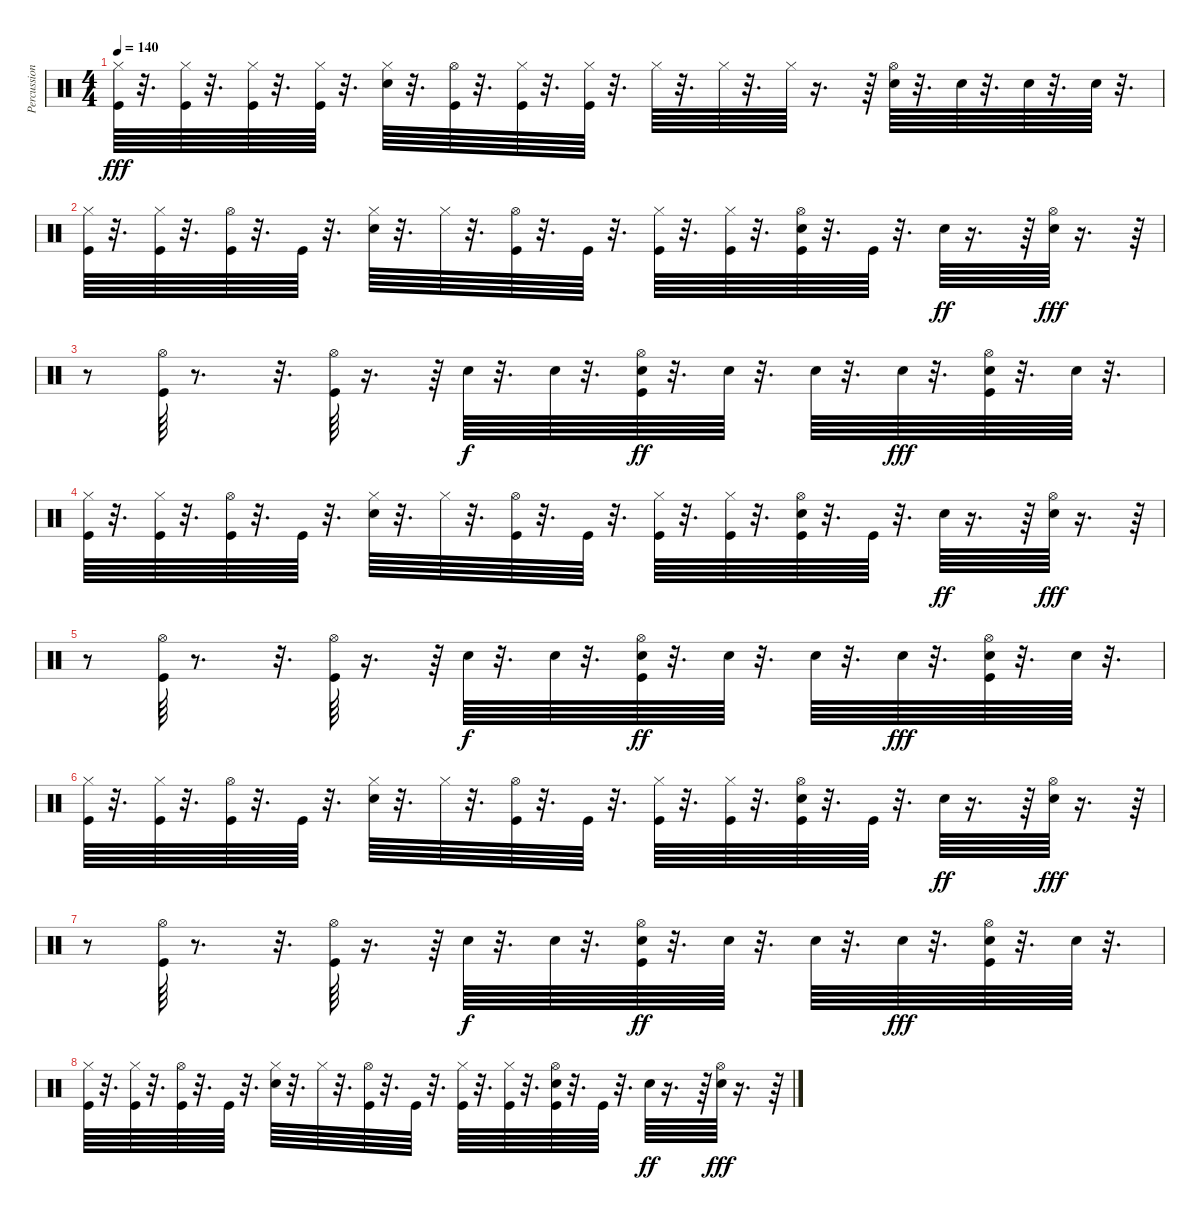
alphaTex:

\track ("Percussion [Room Kit]" "Percussion") {instrument percussion}
\staff {score}
\articulation defaults
\ts (4 4)
\tempo 140
\clef neutral
\ks c
("Kick (hit)" "Hi-Hat (closed)").64{dy fff} r.32{d} ("Kick (hit)" "Hi-Hat (closed)").64 r.32{d} ("Kick (hit)" "Hi-Hat (closed)").64 r.32{d} ("Kick (hit)" "Hi-Hat (closed)").64 r.32{d} ("Electric Snare (hit)" "Hi-Hat (closed)").64 r.32{d} ("Kick (hit)" "Hi-Hat (open)").64 r.32{d} ("Kick (hit)" "Hi-Hat (closed)").64 r.32{d} ("Kick (hit)" "Hi-Hat (closed)").64 r.32{d} "Hi-Hat (closed)".64 r.32{d} "Hi-Hat (closed)".64 r.32{d} "Hi-Hat (closed)".64 r.16{d} r.64 ("Electric Snare (hit)" "Hi-Hat (open)").64 r.32{d} "Electric Snare (hit)".64 r.32{d} "Electric Snare (hit)".64 r.32{d} "Electric Snare (hit)".64 r.32{d} |
("Hi-Hat (closed)" "Kick (hit)").64 r.32{d} ("Hi-Hat (closed)" "Kick (hit)").64 r.32{d} ("Hi-Hat (open)" "Kick (hit)").64 r.32{d} "Kick (hit)".64 r.32{d} ("Hi-Hat (closed)" "Electric Snare (hit)").64 r.32{d} "Hi-Hat (closed)".64 r.32{d} ("Hi-Hat (open)" "Kick (hit)").64 r.32{d} "Kick (hit)".64 r.32{d} ("Hi-Hat (closed)" "Kick (hit)").64 r.32{d} ("Hi-Hat (closed)" "Kick (hit)").64 r.32{d} ("Hi-Hat (open)" "Kick (hit)" "Electric Snare (hit)").64 r.32{d} "Kick (hit)".64 r.32{d} "Electric Snare (hit)".64{dy ff} r.16{d} r.64 ("Hi-Hat (open)" "Electric Snare (hit)").64{dy fff} r.16{d} r.64 |
r.8 ("Kick (hit)" "Hi-Hat (open)").64 r.8{d} r.32{d} ("Kick (hit)" "Hi-Hat (open)").64 r.16{d} r.64 "Electric Snare (hit)".64{dy f} r.32{d} "Electric Snare (hit)".64 r.32{d} ("Kick (hit)" "Hi-Hat (open)" "Electric Snare (hit)").64{dy ff} r.32{d} "Electric Snare (hit)".64 r.32{d} "Electric Snare (hit)".64 r.32{d} "Electric Snare (hit)".64{dy fff} r.32{d} ("Kick (hit)" "Hi-Hat (open)" "Electric Snare (hit)").64 r.32{d} "Electric Snare (hit)".64 r.32{d} |
("Hi-Hat (closed)" "Kick (hit)").64 r.32{d} ("Hi-Hat (closed)" "Kick (hit)").64 r.32{d} ("Hi-Hat (open)" "Kick (hit)").64 r.32{d} "Kick (hit)".64 r.32{d} ("Hi-Hat (closed)" "Electric Snare (hit)").64 r.32{d} "Hi-Hat (closed)".64 r.32{d} ("Hi-Hat (open)" "Kick (hit)").64 r.32{d} "Kick (hit)".64 r.32{d} ("Hi-Hat (closed)" "Kick (hit)").64 r.32{d} ("Hi-Hat (closed)" "Kick (hit)").64 r.32{d} ("Hi-Hat (open)" "Kick (hit)" "Electric Snare (hit)").64 r.32{d} "Kick (hit)".64 r.32{d} "Electric Snare (hit)".64{dy ff} r.16{d} r.64 ("Hi-Hat (open)" "Electric Snare (hit)").64{dy fff} r.16{d} r.64 |
r.8 ("Kick (hit)" "Hi-Hat (open)").64 r.8{d} r.32{d} ("Kick (hit)" "Hi-Hat (open)").64 r.16{d} r.64 "Electric Snare (hit)".64{dy f} r.32{d} "Electric Snare (hit)".64 r.32{d} ("Kick (hit)" "Hi-Hat (open)" "Electric Snare (hit)").64{dy ff} r.32{d} "Electric Snare (hit)".64 r.32{d} "Electric Snare (hit)".64 r.32{d} "Electric Snare (hit)".64{dy fff} r.32{d} ("Kick (hit)" "Hi-Hat (open)" "Electric Snare (hit)").64 r.32{d} "Electric Snare (hit)".64 r.32{d} |
("Hi-Hat (closed)" "Kick (hit)").64 r.32{d} ("Hi-Hat (closed)" "Kick (hit)").64 r.32{d} ("Hi-Hat (open)" "Kick (hit)").64 r.32{d} "Kick (hit)".64 r.32{d} ("Hi-Hat (closed)" "Electric Snare (hit)").64 r.32{d} "Hi-Hat (closed)".64 r.32{d} ("Hi-Hat (open)" "Kick (hit)").64 r.32{d} "Kick (hit)".64 r.32{d} ("Hi-Hat (closed)" "Kick (hit)").64 r.32{d} ("Hi-Hat (closed)" "Kick (hit)").64 r.32{d} ("Hi-Hat (open)" "Kick (hit)" "Electric Snare (hit)").64 r.32{d} "Kick (hit)".64 r.32{d} "Electric Snare (hit)".64{dy ff} r.16{d} r.64 ("Hi-Hat (open)" "Electric Snare (hit)").64{dy fff} r.16{d} r.64 |
r.8 ("Kick (hit)" "Hi-Hat (open)").64 r.8{d} r.32{d} ("Kick (hit)" "Hi-Hat (open)").64 r.16{d} r.64 "Electric Snare (hit)".64{dy f} r.32{d} "Electric Snare (hit)".64 r.32{d} ("Kick (hit)" "Hi-Hat (open)" "Electric Snare (hit)").64{dy ff} r.32{d} "Electric Snare (hit)".64 r.32{d} "Electric Snare (hit)".64 r.32{d} "Electric Snare (hit)".64{dy fff} r.32{d} ("Kick (hit)" "Hi-Hat (open)" "Electric Snare (hit)").64 r.32{d} "Electric Snare (hit)".64 r.32{d} |
("Hi-Hat (closed)" "Kick (hit)").64 r.32{d} ("Hi-Hat (closed)" "Kick (hit)").64 r.32{d} ("Hi-Hat (open)" "Kick (hit)").64 r.32{d} "Kick (hit)".64 r.32{d} ("Hi-Hat (closed)" "Electric Snare (hit)").64 r.32{d} "Hi-Hat (closed)".64 r.32{d} ("Hi-Hat (open)" "Kick (hit)").64 r.32{d} "Kick (hit)".64 r.32{d} ("Hi-Hat (closed)" "Kick (hit)").64 r.32{d} ("Hi-Hat (closed)" "Kick (hit)").64 r.32{d} ("Hi-Hat (open)" "Kick (hit)" "Electric Snare (hit)").64 r.32{d} "Kick (hit)".64 r.32{d} "Electric Snare (hit)".64{dy ff} r.16{d} r.64 ("Hi-Hat (open)" "Electric Snare (hit)").64{dy fff} r.16{d} r.64
